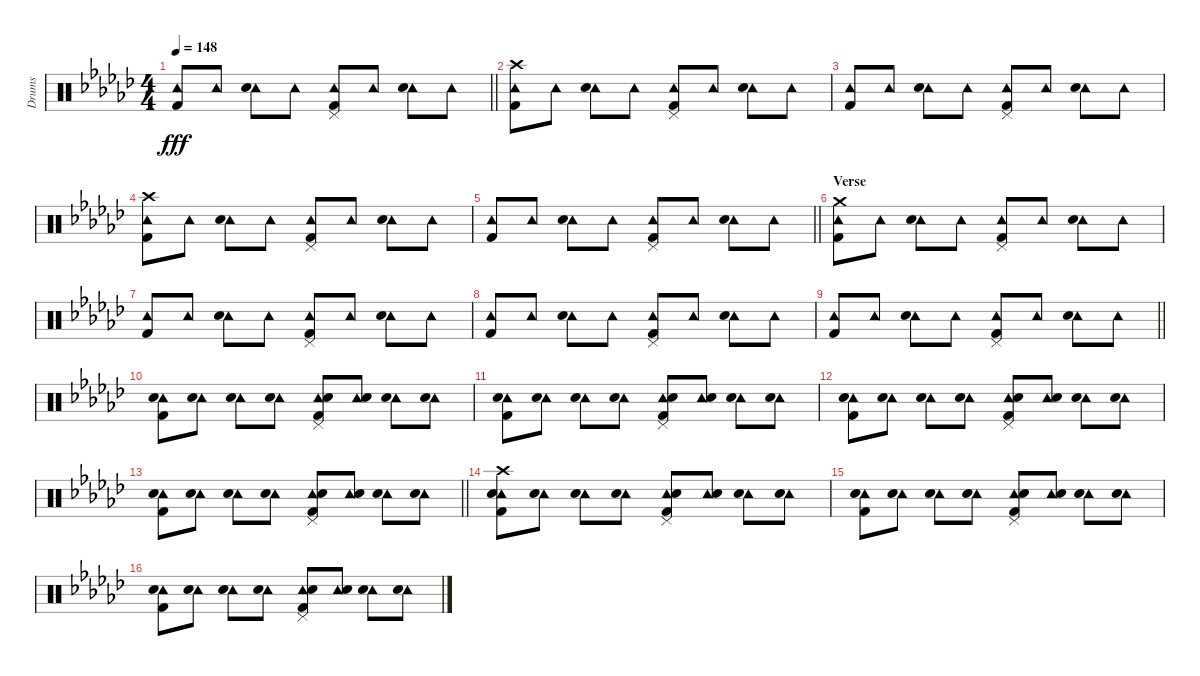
\track ("Drums" "Drums") {instrument percussion}
\staff {score}
\articulation defaults
\ts (4 4)
\tempo 148
\clef neutral
\barLineRight lightlight
\ks gb
("Tambourine (hit)" "Kick (hit) 2").8{dy fff} "Tambourine (hit)".8 ("Tambourine (hit)" "Electric Snare (hit)").8 "Tambourine (hit)".8 ("Pedal Hi-Hat (hit)" "Tambourine (hit)" "Kick (hit) 2").8 "Tambourine (hit)".8 ("Tambourine (hit)" "Electric Snare (hit)").8 "Tambourine (hit)".8 |
("Crash high (hit)" "Tambourine (hit)" "Kick (hit) 2").8 "Tambourine (hit)".8 ("Tambourine (hit)" "Electric Snare (hit)").8 "Tambourine (hit)".8 ("Pedal Hi-Hat (hit)" "Tambourine (hit)" "Kick (hit) 2").8 "Tambourine (hit)".8 ("Tambourine (hit)" "Electric Snare (hit)").8 "Tambourine (hit)".8 |
("Tambourine (hit)" "Kick (hit) 2").8 "Tambourine (hit)".8 ("Tambourine (hit)" "Electric Snare (hit)").8 "Tambourine (hit)".8 ("Pedal Hi-Hat (hit)" "Tambourine (hit)" "Kick (hit) 2").8 "Tambourine (hit)".8 ("Tambourine (hit)" "Electric Snare (hit)").8 "Tambourine (hit)".8 |
("Crash high (hit)" "Tambourine (hit)" "Kick (hit) 2").8 "Tambourine (hit)".8 ("Tambourine (hit)" "Electric Snare (hit)").8 "Tambourine (hit)".8 ("Pedal Hi-Hat (hit)" "Tambourine (hit)" "Kick (hit) 2").8 "Tambourine (hit)".8 ("Tambourine (hit)" "Electric Snare (hit)").8 "Tambourine (hit)".8 |
\barLineRight lightlight
("Tambourine (hit)" "Kick (hit) 2").8 "Tambourine (hit)".8 ("Tambourine (hit)" "Electric Snare (hit)").8 "Tambourine (hit)".8 ("Pedal Hi-Hat (hit)" "Tambourine (hit)" "Kick (hit) 2").8 "Tambourine (hit)".8 ("Tambourine (hit)" "Electric Snare (hit)").8 "Tambourine (hit)".8 |
\section ("" "Verse")
("Crash medium (hit)" "Tambourine (hit)" "Kick (hit) 2").8 "Tambourine (hit)".8 ("Tambourine (hit)" "Electric Snare (hit)").8 "Tambourine (hit)".8 ("Pedal Hi-Hat (hit)" "Tambourine (hit)" "Kick (hit) 2").8 "Tambourine (hit)".8 ("Tambourine (hit)" "Electric Snare (hit)").8 "Tambourine (hit)".8 |
("Tambourine (hit)" "Kick (hit) 2").8 "Tambourine (hit)".8 ("Tambourine (hit)" "Electric Snare (hit)").8 "Tambourine (hit)".8 ("Pedal Hi-Hat (hit)" "Tambourine (hit)" "Kick (hit) 2").8 "Tambourine (hit)".8 ("Tambourine (hit)" "Electric Snare (hit)").8 "Tambourine (hit)".8 |
("Tambourine (hit)" "Kick (hit) 2").8 "Tambourine (hit)".8 ("Tambourine (hit)" "Electric Snare (hit)").8 "Tambourine (hit)".8 ("Pedal Hi-Hat (hit)" "Tambourine (hit)" "Kick (hit) 2").8 "Tambourine (hit)".8 ("Tambourine (hit)" "Electric Snare (hit)").8 "Tambourine (hit)".8 |
\barLineRight lightlight
("Tambourine (hit)" "Kick (hit) 2").8 "Tambourine (hit)".8 ("Tambourine (hit)" "Electric Snare (hit)").8 "Tambourine (hit)".8 ("Pedal Hi-Hat (hit)" "Tambourine (hit)" "Kick (hit) 2").8 "Tambourine (hit)".8 ("Tambourine (hit)" "Electric Snare (hit)").8 "Tambourine (hit)".8 |
("Tambourine (hit)" "Electric Snare (hit)" "Kick (hit) 2").8 ("Tambourine (hit)" "Electric Snare (hit)").8 ("Tambourine (hit)" "Electric Snare (hit)").8 ("Tambourine (hit)" "Electric Snare (hit)").8 ("Pedal Hi-Hat (hit)" "Tambourine (hit)" "Electric Snare (hit)" "Kick (hit) 2").8 ("Tambourine (hit)" "Electric Snare (hit)").8 ("Tambourine (hit)" "Electric Snare (hit)").8 ("Tambourine (hit)" "Electric Snare (hit)").8 |
("Tambourine (hit)" "Electric Snare (hit)" "Kick (hit) 2").8 ("Tambourine (hit)" "Electric Snare (hit)").8 ("Tambourine (hit)" "Electric Snare (hit)").8 ("Tambourine (hit)" "Electric Snare (hit)").8 ("Pedal Hi-Hat (hit)" "Tambourine (hit)" "Electric Snare (hit)" "Kick (hit) 2").8 ("Tambourine (hit)" "Electric Snare (hit)").8 ("Tambourine (hit)" "Electric Snare (hit)").8 ("Tambourine (hit)" "Electric Snare (hit)").8 |
("Tambourine (hit)" "Electric Snare (hit)" "Kick (hit) 2").8 ("Tambourine (hit)" "Electric Snare (hit)").8 ("Tambourine (hit)" "Electric Snare (hit)").8 ("Tambourine (hit)" "Electric Snare (hit)").8 ("Pedal Hi-Hat (hit)" "Tambourine (hit)" "Electric Snare (hit)" "Kick (hit) 2").8 ("Tambourine (hit)" "Electric Snare (hit)").8 ("Tambourine (hit)" "Electric Snare (hit)").8 ("Tambourine (hit)" "Electric Snare (hit)").8 |
\barLineRight lightlight
("Tambourine (hit)" "Electric Snare (hit)" "Kick (hit) 2").8 ("Tambourine (hit)" "Electric Snare (hit)").8 ("Tambourine (hit)" "Electric Snare (hit)").8 ("Tambourine (hit)" "Electric Snare (hit)").8 ("Pedal Hi-Hat (hit)" "Tambourine (hit)" "Electric Snare (hit)" "Kick (hit) 2").8 ("Tambourine (hit)" "Electric Snare (hit)").8 ("Tambourine (hit)" "Electric Snare (hit)").8 ("Tambourine (hit)" "Electric Snare (hit)").8 |
("Crash high (hit)" "Tambourine (hit)" "Electric Snare (hit)" "Kick (hit) 2").8 ("Tambourine (hit)" "Electric Snare (hit)").8 ("Tambourine (hit)" "Electric Snare (hit)").8 ("Tambourine (hit)" "Electric Snare (hit)").8 ("Pedal Hi-Hat (hit)" "Tambourine (hit)" "Electric Snare (hit)" "Kick (hit) 2").8 ("Tambourine (hit)" "Electric Snare (hit)").8 ("Tambourine (hit)" "Electric Snare (hit)").8 ("Tambourine (hit)" "Electric Snare (hit)").8 |
("Tambourine (hit)" "Electric Snare (hit)" "Kick (hit) 2").8 ("Tambourine (hit)" "Electric Snare (hit)").8 ("Tambourine (hit)" "Electric Snare (hit)").8 ("Tambourine (hit)" "Electric Snare (hit)").8 ("Pedal Hi-Hat (hit)" "Tambourine (hit)" "Electric Snare (hit)" "Kick (hit) 2").8 ("Tambourine (hit)" "Electric Snare (hit)").8 ("Tambourine (hit)" "Electric Snare (hit)").8 ("Tambourine (hit)" "Electric Snare (hit)").8 |
("Tambourine (hit)" "Electric Snare (hit)" "Kick (hit) 2").8 ("Tambourine (hit)" "Electric Snare (hit)").8 ("Tambourine (hit)" "Electric Snare (hit)").8 ("Tambourine (hit)" "Electric Snare (hit)").8 ("Pedal Hi-Hat (hit)" "Tambourine (hit)" "Electric Snare (hit)" "Kick (hit) 2").8 ("Tambourine (hit)" "Electric Snare (hit)").8 ("Tambourine (hit)" "Electric Snare (hit)").8 ("Tambourine (hit)" "Electric Snare (hit)").8
